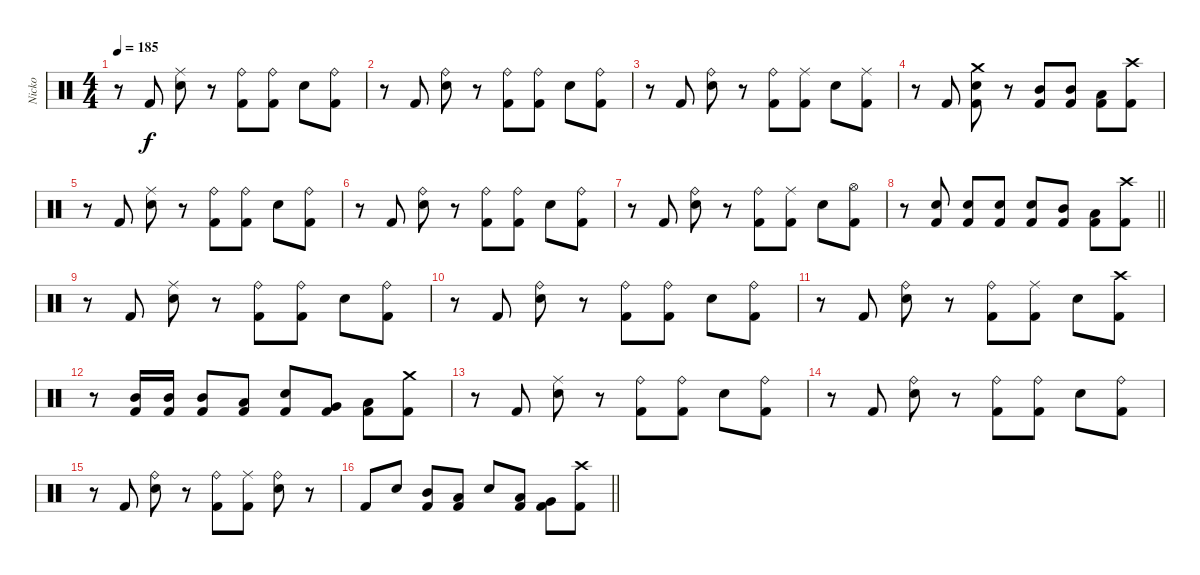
\track ("Nicko" "Nicko") {instrument percussion}
\staff {score}
\articulation defaults
\ts (4 4)
\tempo 185
\clef neutral
\ks c
r.8{dy f} "Kick (hit) 2".8 ("Ride (middle)" "Snare (hit) 2").8 r.8 ("Ride (bell)" "Kick (hit) 2").8 ("Ride (bell)" "Kick (hit) 2").8 "Snare (hit) 2".8 ("Ride (bell)" "Kick (hit) 2").8 |
r.8 "Kick (hit) 2".8 ("Ride (bell)" "Snare (hit) 2").8 r.8 ("Ride (bell)" "Kick (hit) 2").8 ("Ride (bell)" "Kick (hit) 2").8 "Snare (hit) 2".8 ("Ride (bell)" "Kick (hit) 2").8 |
r.8 "Kick (hit) 2".8 ("Ride (bell)" "Snare (hit) 2").8 r.8 ("Ride (bell)" "Kick (hit) 2").8 ("Ride (middle)" "Kick (hit) 2").8 "Snare (hit) 2".8 ("Ride (middle)" "Kick (hit) 2").8 |
r.8 "Kick (hit) 2".8 ("Crash medium (hit)" "Snare (hit) 2" "Kick (hit) 2").8 r.8 ("Mid Tom (hit)" "Kick (hit) 2").8 ("Mid Tom (hit)" "Kick (hit) 2").8 ("Low Tom (hit)" "Kick (hit) 2").8 ("Crash high (hit)" "Kick (hit) 2").8 |
r.8 "Kick (hit) 2".8 ("Ride (middle)" "Snare (hit) 2").8 r.8 ("Ride (bell)" "Kick (hit) 2").8 ("Ride (bell)" "Kick (hit) 2").8 "Snare (hit) 2".8 ("Ride (bell)" "Kick (hit) 2").8 |
r.8 "Kick (hit) 2".8 ("Ride (bell)" "Snare (hit) 2").8 r.8 ("Ride (bell)" "Kick (hit) 2").8 ("Ride (bell)" "Kick (hit) 2").8 "Snare (hit) 2".8 ("Ride (bell)" "Kick (hit) 2").8 |
r.8 "Kick (hit) 2".8 ("Ride (bell)" "Snare (hit) 2").8 r.8 ("Ride (bell)" "Kick (hit) 2").8 ("Ride (middle)" "Kick (hit) 2").8 "Snare (hit) 2".8 ("Hi-Hat (open)" "Kick (hit) 2").8 |
\barLineRight lightlight
r.8 ("Snare (hit) 2" "Kick (hit) 2").8 ("Snare (hit) 2" "Kick (hit) 2").8 ("Snare (hit) 2" "Kick (hit) 2").8 ("Snare (hit) 2" "Kick (hit) 2").8 ("Mid Tom (hit)" "Kick (hit) 2").8 ("Low Tom (hit)" "Kick (hit) 2").8 ("Crash high (hit)" "Kick (hit) 2").8 |
r.8 "Kick (hit) 2".8 ("Ride (middle)" "Snare (hit) 2").8 r.8 ("Ride (bell)" "Kick (hit) 2").8 ("Ride (bell)" "Kick (hit) 2").8 "Snare (hit) 2".8 ("Ride (bell)" "Kick (hit) 2").8 |
r.8 "Kick (hit) 2".8 ("Ride (bell)" "Snare (hit) 2").8 r.8 ("Ride (bell)" "Kick (hit) 2").8 ("Ride (bell)" "Kick (hit) 2").8 "Snare (hit) 2".8 ("Ride (bell)" "Kick (hit) 2").8 |
r.8 "Kick (hit) 2".8 ("Ride (bell)" "Snare (hit) 2").8 r.8 ("Ride (bell)" "Kick (hit) 2").8 ("Ride (middle)" "Kick (hit) 2").8 "Snare (hit) 2".8 ("Crash high (hit)" "Kick (hit) 2").8 |
r.8 ("Mid Tom (hit)" "Kick (hit) 2").16 ("Mid Tom (hit)" "Kick (hit) 2").16 ("Mid Tom (hit)" "Kick (hit) 2").8 ("Low Tom (hit)" "Kick (hit) 2").8 ("Snare (hit) 2" "Kick (hit) 2").8 ("Very Low Tom (hit)" "Kick (hit) 2").8 ("Low Floor Tom (hit)" "Kick (hit) 2").8 ("Crash medium (hit)" "Kick (hit) 2").8 |
r.8 "Kick (hit) 2".8 ("Ride (middle)" "Snare (hit) 2").8 r.8 ("Ride (bell)" "Kick (hit) 2").8 ("Ride (bell)" "Kick (hit) 2").8 "Snare (hit) 2".8 ("Ride (bell)" "Kick (hit) 2").8 |
r.8 "Kick (hit) 2".8 ("Ride (bell)" "Snare (hit) 2").8 r.8 ("Ride (bell)" "Kick (hit) 2").8 ("Ride (bell)" "Kick (hit) 2").8 "Snare (hit) 2".8 ("Ride (bell)" "Kick (hit) 2").8 |
r.8 "Kick (hit) 2".8 ("Ride (bell)" "Snare (hit) 2").8 r.8 ("Ride (bell)" "Kick (hit) 2").8 ("Ride (middle)" "Kick (hit) 2").8 ("Ride (bell)" "Snare (hit) 2").8 r.8 |
\barLineRight lightlight "Kick (hit) 2".8 "Snare (hit) 2".8
("Mid Tom (hit)" "Kick (hit) 2").8 ("Low Tom (hit)" "Kick (hit) 2").8 "Snare (hit) 2".8 ("Low Tom (hit)" "Kick (hit) 2").8 ("Very Low Tom (hit)" "Kick (hit) 2").8 ("Crash high (hit)" "Kick (hit) 2").8
